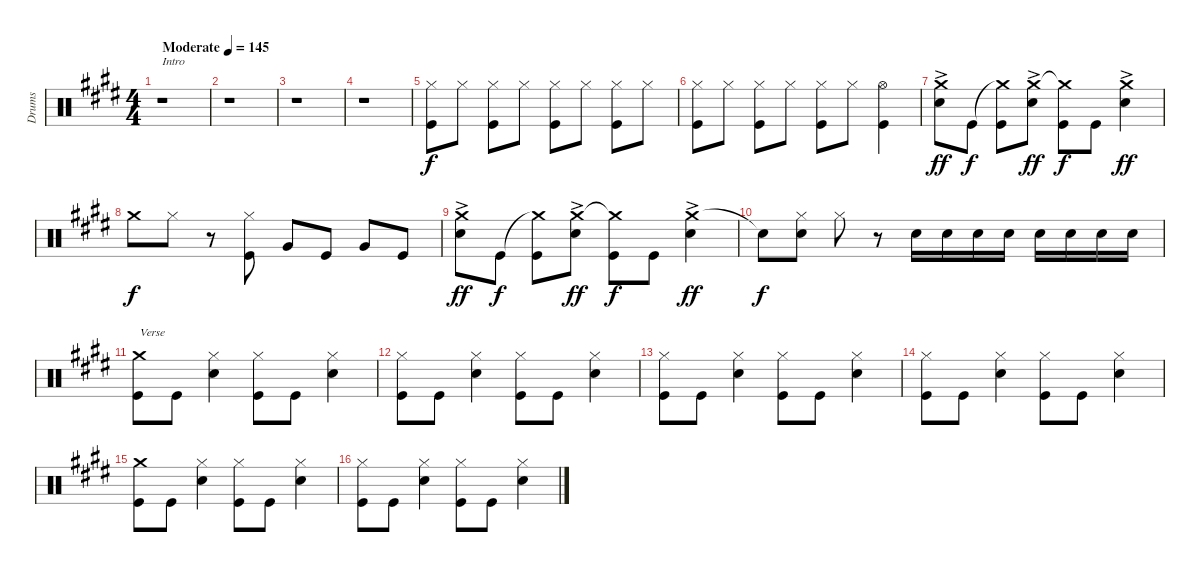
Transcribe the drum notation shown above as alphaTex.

\track ("Drums" "Drums") {instrument percussion}
\staff {score}
\articulation defaults
\ts (4 4)
\tempo (145 "Moderate")
\clef neutral
\ks e
r.1{txt "Intro" dy f} |
r.1 |
r.1 |
r.1 |
("Hi-Hat (closed)" "Kick (hit)").8 "Hi-Hat (closed)".8 ("Hi-Hat (closed)" "Kick (hit)").8 "Hi-Hat (closed)".8 ("Hi-Hat (closed)" "Kick (hit)").8 "Hi-Hat (closed)".8 ("Hi-Hat (closed)" "Kick (hit)").8 "Hi-Hat (closed)".8 |
("Hi-Hat (closed)" "Kick (hit)").8 "Hi-Hat (closed)".8 ("Hi-Hat (closed)" "Kick (hit)").8 "Hi-Hat (closed)".8 ("Hi-Hat (closed)" "Kick (hit)").8 "Hi-Hat (closed)".8 ("Hi-Hat (open)" "Kick (hit)").4 |
("Crash medium (hit)"{ac} "Snare (hit) 2").8{dy ff} "Kick (hit)".8{dy f} ("Crash medium (hit)"{t} "Kick (hit)").8 ("Crash medium (hit)"{ac} "Snare (hit) 2").8{dy ff} ("Crash medium (hit)"{t} "Kick (hit)").8{dy f} "Kick (hit)".8 ("Crash medium (hit)"{ac} "Snare (hit) 2").4{dy ff} |
"Crash medium (hit)".8{dy f} "Hi-Hat (closed)".8 r.8 ("Hi-Hat (closed)" "Kick (hit)").8 "Very Low Tom (hit)".8 "Kick (hit)".8 "Very Low Tom (hit)".8 "Kick (hit)".8 |
("Crash medium (hit)"{ac} "Snare (hit) 2").8{dy ff} "Kick (hit)".8{dy f} ("Crash medium (hit)"{t} "Kick (hit)").8 ("Crash medium (hit)"{ac} "Snare (hit) 2").8{dy ff} ("Crash medium (hit)"{t} "Kick (hit)").8{dy f} "Kick (hit)".8 ("Crash medium (hit)"{ac} "Snare (hit) 2").4{dy ff} |
"Snare (hit)"{t}.8{dy f} ("Hi-Hat (closed)" "Snare (hit) 2").8 "Hi-Hat (closed)".8 r.8 "Snare (hit) 2".16 "Snare (hit) 2".16 "Snare (hit) 2".16 "Snare (hit) 2".16 "Snare (hit) 2".16 "Snare (hit) 2".16 "Snare (hit) 2".16 "Snare (hit) 2".16 |
("Crash medium (hit)" "Kick (hit)").8{txt "Verse"} "Kick (hit)".8 ("Hi-Hat (closed)" "Snare (hit) 2").4 ("Hi-Hat (closed)" "Kick (hit)").8 "Kick (hit)".8 ("Hi-Hat (closed)" "Snare (hit) 2").4 |
("Hi-Hat (closed)" "Kick (hit)").8 "Kick (hit)".8 ("Hi-Hat (closed)" "Snare (hit) 2").4 ("Hi-Hat (closed)" "Kick (hit)").8 "Kick (hit)".8 ("Hi-Hat (closed)" "Snare (hit) 2").4 |
("Hi-Hat (closed)" "Kick (hit)").8 "Kick (hit)".8 ("Hi-Hat (closed)" "Snare (hit) 2").4 ("Hi-Hat (closed)" "Kick (hit)").8 "Kick (hit)".8 ("Hi-Hat (closed)" "Snare (hit) 2").4 |
("Hi-Hat (closed)" "Kick (hit)").8 "Kick (hit)".8 ("Hi-Hat (closed)" "Snare (hit) 2").4 ("Hi-Hat (closed)" "Kick (hit)").8 "Kick (hit)".8 ("Hi-Hat (closed)" "Snare (hit) 2").4 |
("Crash medium (hit)" "Kick (hit)").8 "Kick (hit)".8 ("Hi-Hat (closed)" "Snare (hit) 2").4 ("Hi-Hat (closed)" "Kick (hit)").8 "Kick (hit)".8 ("Hi-Hat (closed)" "Snare (hit) 2").4 |
("Hi-Hat (closed)" "Kick (hit)").8 "Kick (hit)".8 ("Hi-Hat (closed)" "Snare (hit) 2").4 ("Hi-Hat (closed)" "Kick (hit)").8 "Kick (hit)".8 ("Hi-Hat (closed)" "Snare (hit) 2").4
